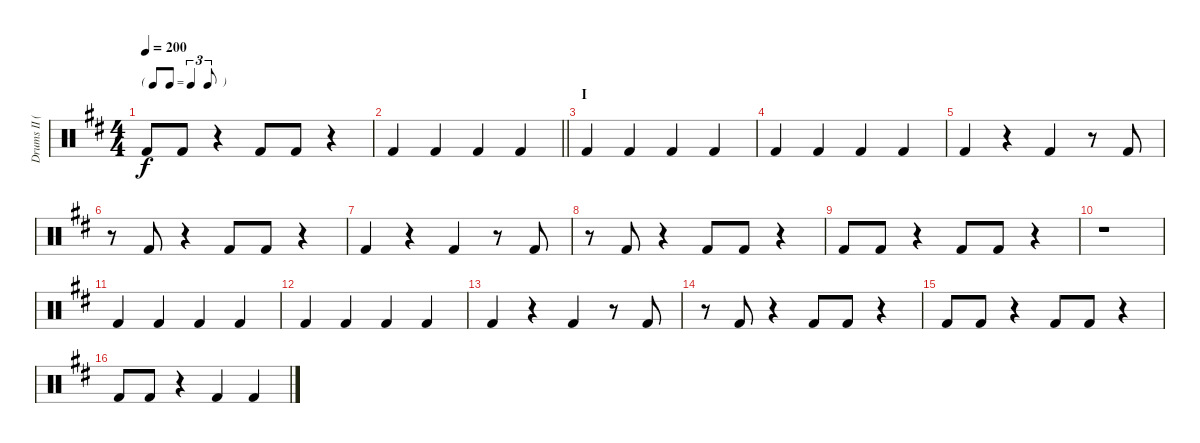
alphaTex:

\track ("Drums II (Ruka)" "Drums II (") {instrument percussion}
\staff {score}
\articulation defaults
\ts (4 4)
\tf triplet8th
\tempo 200
\clef neutral
\ks d "Kick (hit) 2".8{dy f} "Kick (hit) 2".8
r.4 "Kick (hit) 2".8 "Kick (hit) 2".8 r.4 |
\barLineRight lightlight "Kick (hit) 2".4 "Kick (hit) 2".4 "Kick (hit) 2".4 "Kick (hit) 2".4
|
\section ("" "I")
"Kick (hit) 2".4 "Kick (hit) 2".4 "Kick (hit) 2".4 "Kick (hit) 2".4 |
"Kick (hit) 2".4 "Kick (hit) 2".4 "Kick (hit) 2".4 "Kick (hit) 2".4 |
"Kick (hit) 2".4 r.4 "Kick (hit) 2".4 r.8 "Kick (hit) 2".8 |
r.8 "Kick (hit) 2".8 r.4 "Kick (hit) 2".8 "Kick (hit) 2".8 r.4 |
"Kick (hit) 2".4 r.4 "Kick (hit) 2".4 r.8 "Kick (hit) 2".8 |
r.8 "Kick (hit) 2".8 r.4 "Kick (hit) 2".8 "Kick (hit) 2".8 r.4 |
"Kick (hit) 2".8 "Kick (hit) 2".8 r.4 "Kick (hit) 2".8 "Kick (hit) 2".8 r.4 |
r.1 |
"Kick (hit) 2".4 "Kick (hit) 2".4 "Kick (hit) 2".4 "Kick (hit) 2".4 |
"Kick (hit) 2".4 "Kick (hit) 2".4 "Kick (hit) 2".4 "Kick (hit) 2".4 |
"Kick (hit) 2".4 r.4 "Kick (hit) 2".4 r.8 "Kick (hit) 2".8 |
r.8 "Kick (hit) 2".8 r.4 "Kick (hit) 2".8 "Kick (hit) 2".8 r.4 |
"Kick (hit) 2".8 "Kick (hit) 2".8 r.4 "Kick (hit) 2".8 "Kick (hit) 2".8 r.4 |
"Kick (hit) 2".8 "Kick (hit) 2".8 r.4 "Kick (hit) 2".4 "Kick (hit) 2".4
